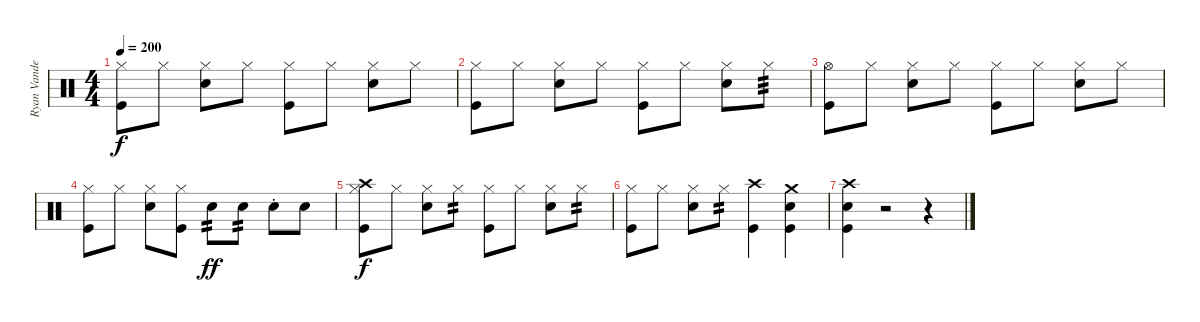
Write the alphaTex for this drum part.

\track ("Ryan Vandebergh" "Ryan Vande") {instrument percussion}
\staff {score}
\articulation defaults
\ts (4 4)
\tempo 200
\clef neutral
\ks c
("Hi-Hat (closed)" "Kick (hit)").8{dy f} "Hi-Hat (closed)".8 ("Hi-Hat (closed)" "Electric Snare (hit)").8 "Hi-Hat (closed)".8 ("Hi-Hat (closed)" "Kick (hit)").8 "Hi-Hat (closed)".8 ("Hi-Hat (closed)" "Electric Snare (hit)").8 "Hi-Hat (closed)".8 |
("Hi-Hat (closed)" "Kick (hit)").8 "Hi-Hat (closed)".8 ("Hi-Hat (closed)" "Electric Snare (hit)").8 "Hi-Hat (closed)".8 ("Hi-Hat (closed)" "Kick (hit)").8 "Hi-Hat (closed)".8 ("Hi-Hat (closed)" "Electric Snare (hit)").8 "Hi-Hat (closed)".8{tp 3} |
("Hi-Hat (open)" "Kick (hit)").8 "Hi-Hat (closed)".8 ("Hi-Hat (closed)" "Electric Snare (hit)").8 "Hi-Hat (closed)".8 ("Hi-Hat (closed)" "Kick (hit)").8 "Hi-Hat (closed)".8 ("Hi-Hat (closed)" "Electric Snare (hit)").8 "Hi-Hat (closed)".8 |
("Hi-Hat (closed)" "Kick (hit)").8 "Hi-Hat (closed)".8 ("Hi-Hat (closed)" "Electric Snare (hit)").8 ("Hi-Hat (closed)" "Kick (hit)").8 "Electric Snare (hit)".8{tp 2 dy ff} "Electric Snare (hit)".8{tp 2} "Electric Snare (hit)"{st}.8 "Electric Snare (hit)".8 |
("Crash high (hit)" "Hi-Hat (closed)" "Kick (hit)").8{dy f} "Hi-Hat (closed)".8 ("Hi-Hat (closed)" "Electric Snare (hit)").8 "Hi-Hat (closed)".8{tp 2} ("Hi-Hat (closed)" "Kick (hit)").8 "Hi-Hat (closed)".8 ("Hi-Hat (closed)" "Electric Snare (hit)").8 "Hi-Hat (closed)".8{tp 2} |
("Hi-Hat (closed)" "Kick (hit)").8 "Hi-Hat (closed)".8 ("Hi-Hat (closed)" "Electric Snare (hit)").8 "Hi-Hat (closed)".8{tp 2} ("Crash high (hit)" "Kick (hit)").4 ("Crash medium (hit)" "Electric Snare (hit)" "Kick (hit)").4 |
("Crash high (hit)" "Electric Snare (hit)" "Kick (hit)").4 r.2 r.4
